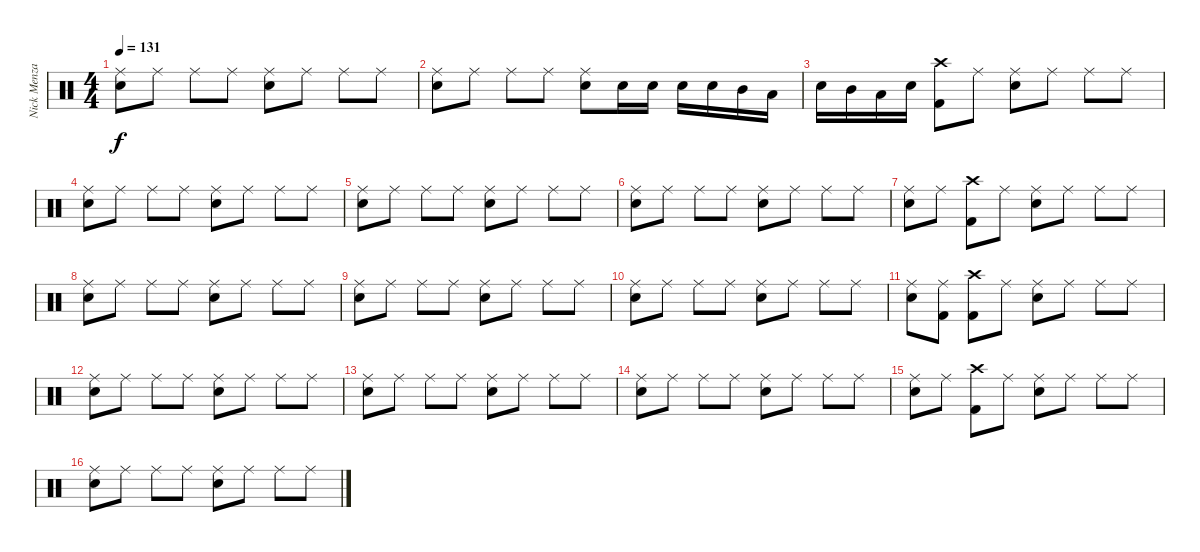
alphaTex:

\track ("Nick Menza" "Nick Menza") {instrument percussion}
\staff {score}
\articulation defaults
\ts (4 4)
\tempo 131
\clef neutral
\ks c
("Ride (middle)" "Snare (hit) 2").8{dy f} "Ride (middle)".8 "Ride (middle)".8 "Ride (middle)".8 ("Ride (middle)" "Snare (hit) 2").8 "Ride (middle)".8 "Ride (middle)".8 "Ride (middle)".8 |
("Ride (middle)" "Snare (hit) 2").8 "Ride (middle)".8 "Ride (middle)".8 "Ride (middle)".8 ("Ride (middle)" "Snare (hit) 2").8 "Snare (hit) 2".16 "Snare (hit) 2".16 "Snare (hit) 2".16 "Snare (hit) 2".16 "Mid Tom (hit)".16 "Low Tom (hit)".16 |
"Snare (hit) 2".16 "Mid Tom (hit)".16 "Low Tom (hit)".16 "Snare (hit) 2".16 ("Crash high (hit)" "Kick (hit) 2").8 "Ride (middle)".8 ("Ride (middle)" "Snare (hit) 2").8 "Ride (middle)".8 "Ride (middle)".8 "Ride (middle)".8 |
("Ride (middle)" "Snare (hit) 2").8 "Ride (middle)".8 "Ride (middle)".8 "Ride (middle)".8 ("Ride (middle)" "Snare (hit) 2").8 "Ride (middle)".8 "Ride (middle)".8 "Ride (middle)".8 |
("Ride (middle)" "Snare (hit) 2").8 "Ride (middle)".8 "Ride (middle)".8 "Ride (middle)".8 ("Ride (middle)" "Snare (hit) 2").8 "Ride (middle)".8 "Ride (middle)".8 "Ride (middle)".8 |
("Ride (middle)" "Snare (hit) 2").8 "Ride (middle)".8 "Ride (middle)".8 "Ride (middle)".8 ("Ride (middle)" "Snare (hit) 2").8 "Ride (middle)".8 "Ride (middle)".8 "Ride (middle)".8 |
("Ride (middle)" "Snare (hit) 2").8 "Ride (middle)".8 ("Crash high (hit)" "Kick (hit) 2").8 "Ride (middle)".8 ("Ride (middle)" "Snare (hit) 2").8 "Ride (middle)".8 "Ride (middle)".8 "Ride (middle)".8 |
("Ride (middle)" "Snare (hit) 2").8 "Ride (middle)".8 "Ride (middle)".8 "Ride (middle)".8 ("Ride (middle)" "Snare (hit) 2").8 "Ride (middle)".8 "Ride (middle)".8 "Ride (middle)".8 |
("Ride (middle)" "Snare (hit) 2").8 "Ride (middle)".8 "Ride (middle)".8 "Ride (middle)".8 ("Ride (middle)" "Snare (hit) 2").8 "Ride (middle)".8 "Ride (middle)".8 "Ride (middle)".8 |
("Ride (middle)" "Snare (hit) 2").8 "Ride (middle)".8 "Ride (middle)".8 "Ride (middle)".8 ("Ride (middle)" "Snare (hit) 2").8 "Ride (middle)".8 "Ride (middle)".8 "Ride (middle)".8 |
("Ride (middle)" "Snare (hit) 2").8 ("Ride (middle)" "Kick (hit) 2").8 ("Crash high (hit)" "Kick (hit) 2").8 "Ride (middle)".8 ("Ride (middle)" "Snare (hit) 2").8 "Ride (middle)".8 "Ride (middle)".8 "Ride (middle)".8 |
("Ride (middle)" "Snare (hit) 2").8 "Ride (middle)".8 "Ride (middle)".8 "Ride (middle)".8 ("Ride (middle)" "Snare (hit) 2").8 "Ride (middle)".8 "Ride (middle)".8 "Ride (middle)".8 |
("Ride (middle)" "Snare (hit) 2").8 "Ride (middle)".8 "Ride (middle)".8 "Ride (middle)".8 ("Ride (middle)" "Snare (hit) 2").8 "Ride (middle)".8 "Ride (middle)".8 "Ride (middle)".8 |
("Ride (middle)" "Snare (hit) 2").8 "Ride (middle)".8 "Ride (middle)".8 "Ride (middle)".8 ("Ride (middle)" "Snare (hit) 2").8 "Ride (middle)".8 "Ride (middle)".8 "Ride (middle)".8 |
("Ride (middle)" "Snare (hit) 2").8 "Ride (middle)".8 ("Crash high (hit)" "Kick (hit) 2").8 "Ride (middle)".8 ("Ride (middle)" "Snare (hit) 2").8 "Ride (middle)".8 "Ride (middle)".8 "Ride (middle)".8 |
("Ride (middle)" "Snare (hit) 2").8 "Ride (middle)".8 "Ride (middle)".8 "Ride (middle)".8 ("Ride (middle)" "Snare (hit) 2").8 "Ride (middle)".8 "Ride (middle)".8 "Ride (middle)".8
